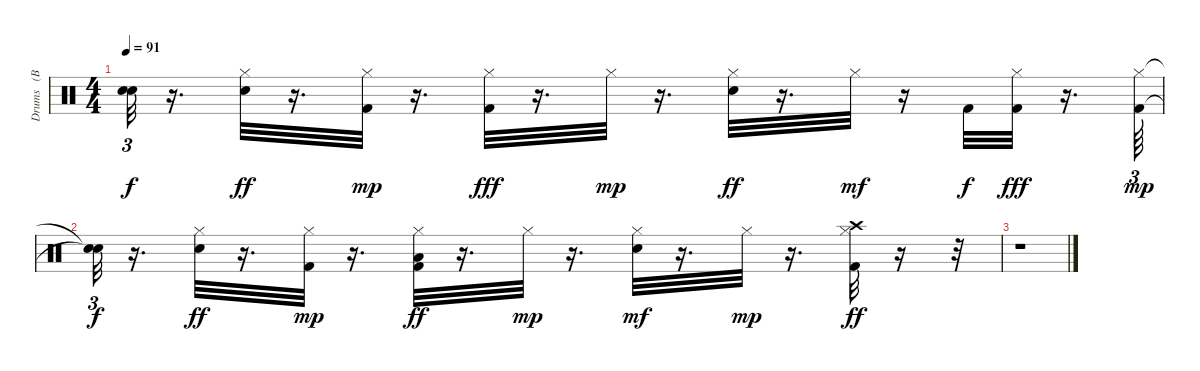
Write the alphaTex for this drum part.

\track ("Drums   (BB)" "Drums   (B") {instrument percussion}
\staff {score}
\articulation defaults
\ts (4 4)
\tempo 91
\clef neutral
\ks c
("Snare (hit)"{t} "Snare (hit)"{t}).32{tu (3 2) dy f} r.16{d} ("Electric Snare (hit)" "Hi-Hat (closed)").32{dy ff} r.16{d} ("Hi-Hat (closed)" "Kick (hit) 2").32{dy mp} r.16{d} ("Hi-Hat (closed)" "Kick (hit) 2").32{dy fff} r.16{d} "Hi-Hat (closed)".32{dy mp} r.16{d} ("Electric Snare (hit)" "Hi-Hat (closed)").32{dy ff} r.16{d} "Hi-Hat (closed)".32{dy mf} r.16 "Kick (hit) 2".32{dy f} ("Hi-Hat (closed)" "Kick (hit) 2").32{dy fff} r.16{d} ("Kick (hit) 2" "Hi-Hat (closed)").64{tu (3 2) dy mp} |
("Snare (hit)"{t} "Snare (hit)"{t}).32{tu (3 2) dy f} r.16{d} ("Hi-Hat (closed)" "Electric Snare (hit)").32{dy ff} r.16{d} ("Hi-Hat (closed)" "Kick (hit) 2").32{dy mp} r.16{d} ("Low Floor Tom (hit)" "Hi-Hat (closed)" "Kick (hit) 2").32{dy ff} r.16{d} "Hi-Hat (closed)".32{dy mp} r.16{d} ("Hi-Hat (closed)" "Electric Snare (hit)").32{dy mf} r.16{d} "Hi-Hat (closed)".32{dy mp} r.16{d} ("Crash high (hit)" "Hi-Hat (closed)" "Kick (hit) 2").32{dy ff} r.16 r.32 |
r.1
